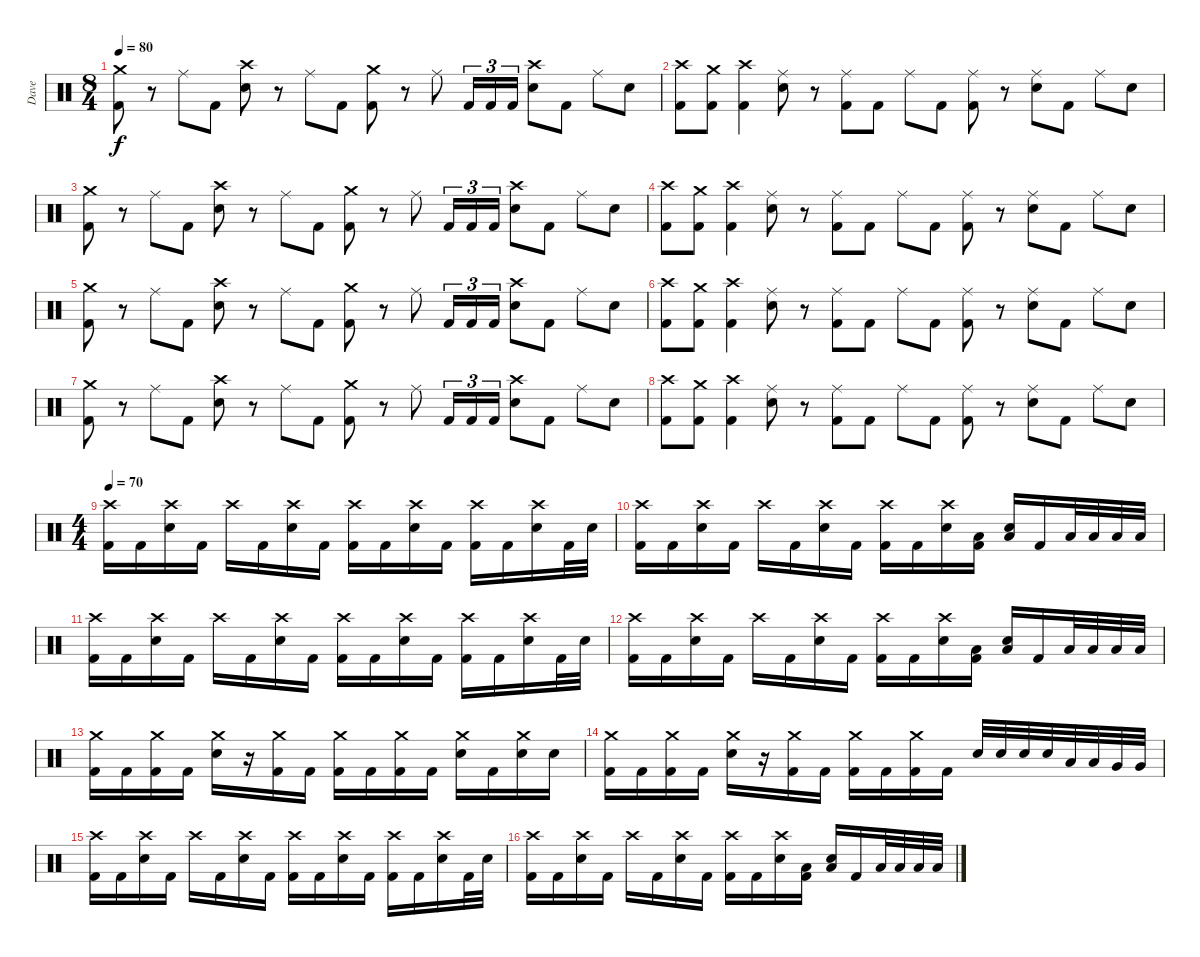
\track ("Dave" "Dave") {instrument percussion}
\staff {score}
\articulation defaults
\ts (8 4)
\tempo 80
\clef neutral
\ks c
("Crash medium (hit)" "Kick (hit) 2").8{dy f} r.8 "Ride (middle)".8 "Kick (hit) 2".8 ("Crash high (hit)" "Electric Snare (hit)").8 r.8 "Ride (middle)".8 "Kick (hit) 2".8 ("Crash medium (hit)" "Kick (hit) 2").8 r.8 "Ride (middle)".8 "Kick (hit) 2".16{tu (3 2)} "Kick (hit) 2".16{tu (3 2)} "Kick (hit) 2".16{tu (3 2)} ("Crash high (hit)" "Electric Snare (hit)").8 "Kick (hit) 2".8 "Ride (middle)".8 "Electric Snare (hit)".8 |
("Crash high (hit)" "Kick (hit) 2").8 ("Crash medium (hit)" "Kick (hit) 2").8 ("Crash high (hit)" "Kick (hit) 2").4 ("Ride (middle)" "Electric Snare (hit)").8 r.8 ("Ride (middle)" "Kick (hit) 2").8 "Kick (hit) 2".8 "Ride (middle)".8 "Kick (hit) 2".8 ("Ride (middle)" "Kick (hit) 2").8 r.8 ("Ride (middle)" "Electric Snare (hit)").8 "Kick (hit) 2".8 "Ride (middle)".8 "Electric Snare (hit)".8 |
("Crash medium (hit)" "Kick (hit) 2").8 r.8 "Ride (middle)".8 "Kick (hit) 2".8 ("Crash high (hit)" "Electric Snare (hit)").8 r.8 "Ride (middle)".8 "Kick (hit) 2".8 ("Crash medium (hit)" "Kick (hit) 2").8 r.8 "Ride (middle)".8 "Kick (hit) 2".16{tu (3 2)} "Kick (hit) 2".16{tu (3 2)} "Kick (hit) 2".16{tu (3 2)} ("Crash high (hit)" "Electric Snare (hit)").8 "Kick (hit) 2".8 "Ride (middle)".8 "Electric Snare (hit)".8 |
("Crash high (hit)" "Kick (hit) 2").8 ("Crash medium (hit)" "Kick (hit) 2").8 ("Crash high (hit)" "Kick (hit) 2").4 ("Ride (middle)" "Electric Snare (hit)").8 r.8 ("Ride (middle)" "Kick (hit) 2").8 "Kick (hit) 2".8 "Ride (middle)".8 "Kick (hit) 2".8 ("Ride (middle)" "Kick (hit) 2").8 r.8 ("Ride (middle)" "Electric Snare (hit)").8 "Kick (hit) 2".8 "Ride (middle)".8 "Electric Snare (hit)".8 |
("Crash medium (hit)" "Kick (hit) 2").8 r.8 "Ride (middle)".8 "Kick (hit) 2".8 ("Crash high (hit)" "Electric Snare (hit)").8 r.8 "Ride (middle)".8 "Kick (hit) 2".8 ("Crash medium (hit)" "Kick (hit) 2").8 r.8 "Ride (middle)".8 "Kick (hit) 2".16{tu (3 2)} "Kick (hit) 2".16{tu (3 2)} "Kick (hit) 2".16{tu (3 2)} ("Crash high (hit)" "Electric Snare (hit)").8 "Kick (hit) 2".8 "Ride (middle)".8 "Electric Snare (hit)".8 |
("Crash high (hit)" "Kick (hit) 2").8 ("Crash medium (hit)" "Kick (hit) 2").8 ("Crash high (hit)" "Kick (hit) 2").4 ("Ride (middle)" "Electric Snare (hit)").8 r.8 ("Ride (middle)" "Kick (hit) 2").8 "Kick (hit) 2".8 "Ride (middle)".8 "Kick (hit) 2".8 ("Ride (middle)" "Kick (hit) 2").8 r.8 ("Ride (middle)" "Electric Snare (hit)").8 "Kick (hit) 2".8 "Ride (middle)".8 "Electric Snare (hit)".8 |
("Crash medium (hit)" "Kick (hit) 2").8 r.8 "Ride (middle)".8 "Kick (hit) 2".8 ("Crash high (hit)" "Electric Snare (hit)").8 r.8 "Ride (middle)".8 "Kick (hit) 2".8 ("Crash medium (hit)" "Kick (hit) 2").8 r.8 "Ride (middle)".8 "Kick (hit) 2".16{tu (3 2)} "Kick (hit) 2".16{tu (3 2)} "Kick (hit) 2".16{tu (3 2)} ("Crash high (hit)" "Electric Snare (hit)").8 "Kick (hit) 2".8 "Ride (middle)".8 "Electric Snare (hit)".8 |
("Crash high (hit)" "Kick (hit) 2").8 ("Crash medium (hit)" "Kick (hit) 2").8 ("Crash high (hit)" "Kick (hit) 2").4 ("Ride (middle)" "Electric Snare (hit)").8 r.8 ("Ride (middle)" "Kick (hit) 2").8 "Kick (hit) 2".8 "Ride (middle)".8 "Kick (hit) 2".8 ("Ride (middle)" "Kick (hit) 2").8 r.8 ("Ride (middle)" "Electric Snare (hit)").8 "Kick (hit) 2".8 "Ride (middle)".8 "Electric Snare (hit)".8 |
\ts (4 4)
\tempo 70
("Crash high (hit)" "Kick (hit) 2").16 "Kick (hit) 2".16 ("Crash high (hit)" "Electric Snare (hit)").16 "Kick (hit) 2".16 "Crash high (hit)".16 "Kick (hit) 2".16 ("Crash high (hit)" "Electric Snare (hit)").16 "Kick (hit) 2".16 ("Crash high (hit)" "Kick (hit) 2").16 "Kick (hit) 2".16 ("Crash high (hit)" "Electric Snare (hit)").16 "Kick (hit) 2".16 ("Crash high (hit)" "Kick (hit) 2").16 "Kick (hit) 2".16 ("Crash high (hit)" "Electric Snare (hit)").16 "Kick (hit) 2".32 "Electric Snare (hit)".32 |
("Crash high (hit)" "Kick (hit) 2").16 "Kick (hit) 2".16 ("Crash high (hit)" "Electric Snare (hit)").16 "Kick (hit) 2".16 "Crash high (hit)".16 "Kick (hit) 2".16 ("Crash high (hit)" "Electric Snare (hit)").16 "Kick (hit) 2".16 ("Crash high (hit)" "Kick (hit) 2").16 "Kick (hit) 2".16 ("Crash high (hit)" "Electric Snare (hit)").16 ("Low Floor Tom (hit)" "Kick (hit) 2").16 ("Low Floor Tom (hit)" "Electric Snare (hit)").16 "Kick (hit) 2".16 "Low Tom (hit)".32 "Low Tom (hit)".32 "Low Tom (hit)".32 "Low Tom (hit)".32 |
("Crash high (hit)" "Kick (hit) 2").16 "Kick (hit) 2".16 ("Crash high (hit)" "Electric Snare (hit)").16 "Kick (hit) 2".16 "Crash high (hit)".16 "Kick (hit) 2".16 ("Crash high (hit)" "Electric Snare (hit)").16 "Kick (hit) 2".16 ("Crash high (hit)" "Kick (hit) 2").16 "Kick (hit) 2".16 ("Crash high (hit)" "Electric Snare (hit)").16 "Kick (hit) 2".16 ("Crash high (hit)" "Kick (hit) 2").16 "Kick (hit) 2".16 ("Crash high (hit)" "Electric Snare (hit)").16 "Kick (hit) 2".32 "Electric Snare (hit)".32 |
("Crash high (hit)" "Kick (hit) 2").16 "Kick (hit) 2".16 ("Crash high (hit)" "Electric Snare (hit)").16 "Kick (hit) 2".16 "Crash high (hit)".16 "Kick (hit) 2".16 ("Crash high (hit)" "Electric Snare (hit)").16 "Kick (hit) 2".16 ("Crash high (hit)" "Kick (hit) 2").16 "Kick (hit) 2".16 ("Crash high (hit)" "Electric Snare (hit)").16 ("Low Floor Tom (hit)" "Kick (hit) 2").16 ("Low Floor Tom (hit)" "Electric Snare (hit)").16 "Kick (hit) 2".16 "Low Tom (hit)".32 "Low Tom (hit)".32 "Low Tom (hit)".32 "Low Tom (hit)".32 |
("Crash medium (hit)" "Kick (hit) 2").16 "Kick (hit) 2".16 ("Crash medium (hit)" "Kick (hit) 2").16 "Kick (hit) 2".16 ("Crash medium (hit)" "Electric Snare (hit)").16 r.16 ("Crash medium (hit)" "Kick (hit) 2").16 "Kick (hit) 2".16 ("Crash medium (hit)" "Kick (hit) 2").16 "Kick (hit) 2".16 ("Crash medium (hit)" "Kick (hit) 2").16 "Kick (hit) 2".16 ("Crash medium (hit)" "Electric Snare (hit)").16 "Kick (hit) 2".16 ("Crash medium (hit)" "Electric Snare (hit)").16 "Electric Snare (hit)".16 |
("Crash medium (hit)" "Kick (hit) 2").16 "Kick (hit) 2".16 ("Crash medium (hit)" "Kick (hit) 2").16 "Kick (hit) 2".16 ("Crash medium (hit)" "Electric Snare (hit)").16 r.16 ("Crash medium (hit)" "Kick (hit) 2").16 "Kick (hit) 2".16 ("Crash medium (hit)" "Kick (hit) 2").16 "Kick (hit) 2".16 ("Crash medium (hit)" "Kick (hit) 2").16 "Kick (hit) 2".16 "Electric Snare (hit)".32 "Electric Snare (hit)".32 "Electric Snare (hit)".32 "Electric Snare (hit)".32 "Low Tom (hit)".32 "Low Tom (hit)".32 "Very Low Tom (hit)".32 "Very Low Tom (hit)".32 |
("Crash high (hit)" "Kick (hit) 2").16 "Kick (hit) 2".16 ("Crash high (hit)" "Electric Snare (hit)").16 "Kick (hit) 2".16 "Crash high (hit)".16 "Kick (hit) 2".16 ("Crash high (hit)" "Electric Snare (hit)").16 "Kick (hit) 2".16 ("Crash high (hit)" "Kick (hit) 2").16 "Kick (hit) 2".16 ("Crash high (hit)" "Electric Snare (hit)").16 "Kick (hit) 2".16 ("Crash high (hit)" "Kick (hit) 2").16 "Kick (hit) 2".16 ("Crash high (hit)" "Electric Snare (hit)").16 "Kick (hit) 2".32 "Electric Snare (hit)".32 |
("Crash high (hit)" "Kick (hit) 2").16 "Kick (hit) 2".16 ("Crash high (hit)" "Electric Snare (hit)").16 "Kick (hit) 2".16 "Crash high (hit)".16 "Kick (hit) 2".16 ("Crash high (hit)" "Electric Snare (hit)").16 "Kick (hit) 2".16 ("Crash high (hit)" "Kick (hit) 2").16 "Kick (hit) 2".16 ("Crash high (hit)" "Electric Snare (hit)").16 ("Low Floor Tom (hit)" "Kick (hit) 2").16 ("Low Floor Tom (hit)" "Electric Snare (hit)").16 "Kick (hit) 2".16 "Low Tom (hit)".32 "Low Tom (hit)".32 "Low Tom (hit)".32 "Low Tom (hit)".32
